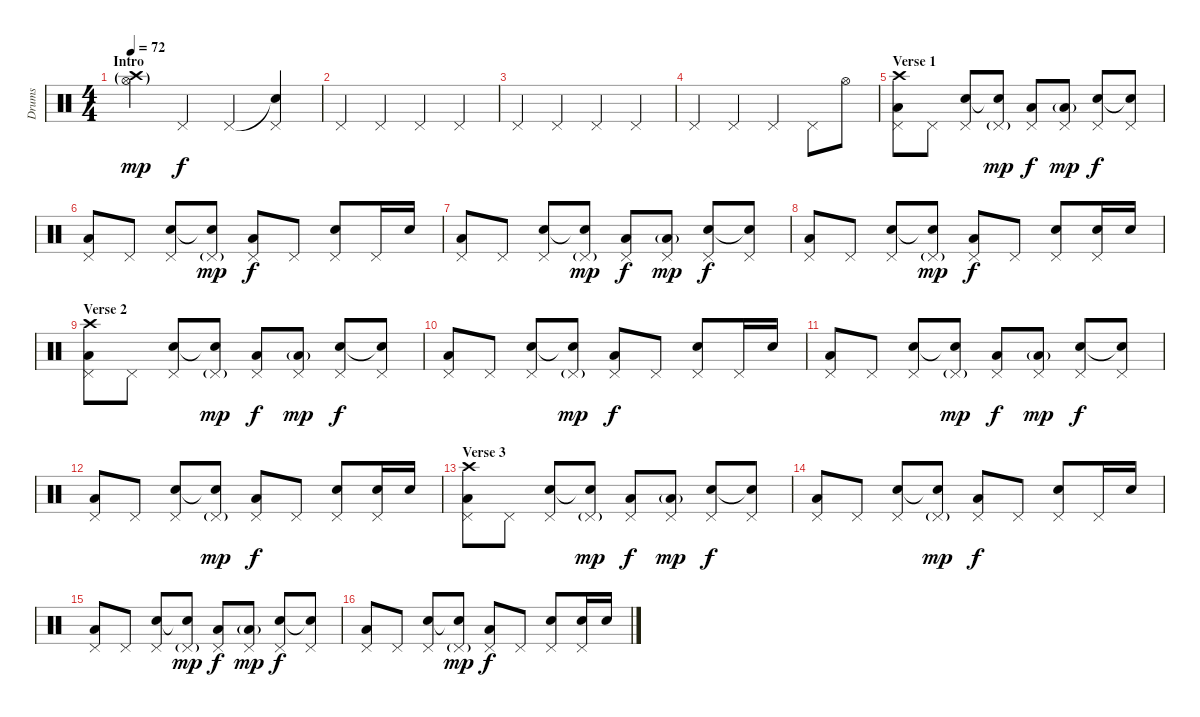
\track ("Drums" "Drums") {instrument percussion}
\staff {score}
\articulation defaults
\ts (4 4)
\section ("" "Intro")
\tempo 72
\clef neutral
\ks c
("Crash high (hit)"{g} "Hi-Hat (open)"{g}).4{dy mp} "Pedal Hi-Hat (hit)".4{dy f} "Pedal Hi-Hat (hit)".4 ("Snare (hit)"{t} "Pedal Hi-Hat (hit)").4 |
"Pedal Hi-Hat (hit)".4 "Pedal Hi-Hat (hit)".4 "Pedal Hi-Hat (hit)".4 "Pedal Hi-Hat (hit)".4 |
"Pedal Hi-Hat (hit)".4 "Pedal Hi-Hat (hit)".4 "Pedal Hi-Hat (hit)".4 "Pedal Hi-Hat (hit)".4 |
"Pedal Hi-Hat (hit)".4 "Pedal Hi-Hat (hit)".4 "Pedal Hi-Hat (hit)".4 "Pedal Hi-Hat (hit)".8 "Hi-Hat (open)".8 |
\section ("" "Verse 1")
("Crash high (hit)" "Pedal Hi-Hat (hit)" "Low Floor Tom (hit)").8 "Pedal Hi-Hat (hit)".8 ("Pedal Hi-Hat (hit)" "Electric Snare (hit)").8 ("Pedal Hi-Hat (hit)"{g} "Electric Snare (hit)"{t}).8{dy mp} ("Pedal Hi-Hat (hit)" "Low Floor Tom (hit)").8{dy f} ("Pedal Hi-Hat (hit)" "Low Floor Tom (hit)"{g}).8{dy mp} ("Pedal Hi-Hat (hit)" "Electric Snare (hit)").8{dy f} ("Pedal Hi-Hat (hit)" "Snare (hit)"{t}).8 |
("Pedal Hi-Hat (hit)" "Low Floor Tom (hit)").8 "Pedal Hi-Hat (hit)".8 ("Pedal Hi-Hat (hit)" "Electric Snare (hit)").8 ("Pedal Hi-Hat (hit)"{g} "Electric Snare (hit)"{t}).8{dy mp} ("Pedal Hi-Hat (hit)" "Low Floor Tom (hit)").8{dy f} "Pedal Hi-Hat (hit)".8 ("Pedal Hi-Hat (hit)" "Electric Snare (hit)").8 "Pedal Hi-Hat (hit)".16 "Electric Snare (hit)".16 |
("Pedal Hi-Hat (hit)" "Low Floor Tom (hit)").8 "Pedal Hi-Hat (hit)".8 ("Pedal Hi-Hat (hit)" "Electric Snare (hit)").8 ("Pedal Hi-Hat (hit)"{g} "Electric Snare (hit)"{t}).8{dy mp} ("Pedal Hi-Hat (hit)" "Low Floor Tom (hit)").8{dy f} ("Pedal Hi-Hat (hit)" "Low Floor Tom (hit)"{g}).8{dy mp} ("Pedal Hi-Hat (hit)" "Electric Snare (hit)").8{dy f} ("Pedal Hi-Hat (hit)" "Snare (hit)"{t}).8 |
("Pedal Hi-Hat (hit)" "Low Floor Tom (hit)").8 "Pedal Hi-Hat (hit)".8 ("Pedal Hi-Hat (hit)" "Electric Snare (hit)").8 ("Pedal Hi-Hat (hit)"{g} "Electric Snare (hit)"{t}).8{dy mp} ("Pedal Hi-Hat (hit)" "Low Floor Tom (hit)").8{dy f} "Pedal Hi-Hat (hit)".8 ("Pedal Hi-Hat (hit)" "Electric Snare (hit)").8 ("Pedal Hi-Hat (hit)" "Electric Snare (hit)").16 "Electric Snare (hit)".16 |
\section ("" "Verse 2")
("Crash high (hit)" "Pedal Hi-Hat (hit)" "Low Floor Tom (hit)").8 "Pedal Hi-Hat (hit)".8 ("Pedal Hi-Hat (hit)" "Electric Snare (hit)").8 ("Pedal Hi-Hat (hit)"{g} "Electric Snare (hit)"{t}).8{dy mp} ("Pedal Hi-Hat (hit)" "Low Floor Tom (hit)").8{dy f} ("Pedal Hi-Hat (hit)" "Low Floor Tom (hit)"{g}).8{dy mp} ("Pedal Hi-Hat (hit)" "Electric Snare (hit)").8{dy f} ("Pedal Hi-Hat (hit)" "Snare (hit)"{t}).8 |
("Pedal Hi-Hat (hit)" "Low Floor Tom (hit)").8 "Pedal Hi-Hat (hit)".8 ("Pedal Hi-Hat (hit)" "Electric Snare (hit)").8 ("Pedal Hi-Hat (hit)"{g} "Electric Snare (hit)"{t}).8{dy mp} ("Pedal Hi-Hat (hit)" "Low Floor Tom (hit)").8{dy f} "Pedal Hi-Hat (hit)".8 ("Pedal Hi-Hat (hit)" "Electric Snare (hit)").8 "Pedal Hi-Hat (hit)".16 "Electric Snare (hit)".16 |
("Pedal Hi-Hat (hit)" "Low Floor Tom (hit)").8 "Pedal Hi-Hat (hit)".8 ("Pedal Hi-Hat (hit)" "Electric Snare (hit)").8 ("Pedal Hi-Hat (hit)"{g} "Electric Snare (hit)"{t}).8{dy mp} ("Pedal Hi-Hat (hit)" "Low Floor Tom (hit)").8{dy f} ("Pedal Hi-Hat (hit)" "Low Floor Tom (hit)"{g}).8{dy mp} ("Pedal Hi-Hat (hit)" "Electric Snare (hit)").8{dy f} ("Pedal Hi-Hat (hit)" "Snare (hit)"{t}).8 |
("Pedal Hi-Hat (hit)" "Low Floor Tom (hit)").8 "Pedal Hi-Hat (hit)".8 ("Pedal Hi-Hat (hit)" "Electric Snare (hit)").8 ("Pedal Hi-Hat (hit)"{g} "Electric Snare (hit)"{t}).8{dy mp} ("Pedal Hi-Hat (hit)" "Low Floor Tom (hit)").8{dy f} "Pedal Hi-Hat (hit)".8 ("Pedal Hi-Hat (hit)" "Electric Snare (hit)").8 ("Pedal Hi-Hat (hit)" "Electric Snare (hit)").16 "Electric Snare (hit)".16 |
\section ("" "Verse 3")
("Crash high (hit)" "Pedal Hi-Hat (hit)" "Low Floor Tom (hit)").8 "Pedal Hi-Hat (hit)".8 ("Pedal Hi-Hat (hit)" "Electric Snare (hit)").8 ("Pedal Hi-Hat (hit)"{g} "Electric Snare (hit)"{t}).8{dy mp} ("Pedal Hi-Hat (hit)" "Low Floor Tom (hit)").8{dy f} ("Pedal Hi-Hat (hit)" "Low Floor Tom (hit)"{g}).8{dy mp} ("Pedal Hi-Hat (hit)" "Electric Snare (hit)").8{dy f} ("Pedal Hi-Hat (hit)" "Snare (hit)"{t}).8 |
("Pedal Hi-Hat (hit)" "Low Floor Tom (hit)").8 "Pedal Hi-Hat (hit)".8 ("Pedal Hi-Hat (hit)" "Electric Snare (hit)").8 ("Pedal Hi-Hat (hit)"{g} "Electric Snare (hit)"{t}).8{dy mp} ("Pedal Hi-Hat (hit)" "Low Floor Tom (hit)").8{dy f} "Pedal Hi-Hat (hit)".8 ("Pedal Hi-Hat (hit)" "Electric Snare (hit)").8 "Pedal Hi-Hat (hit)".16 "Electric Snare (hit)".16 |
("Pedal Hi-Hat (hit)" "Low Floor Tom (hit)").8 "Pedal Hi-Hat (hit)".8 ("Pedal Hi-Hat (hit)" "Electric Snare (hit)").8 ("Pedal Hi-Hat (hit)"{g} "Electric Snare (hit)"{t}).8{dy mp} ("Pedal Hi-Hat (hit)" "Low Floor Tom (hit)").8{dy f} ("Pedal Hi-Hat (hit)" "Low Floor Tom (hit)"{g}).8{dy mp} ("Pedal Hi-Hat (hit)" "Electric Snare (hit)").8{dy f} ("Pedal Hi-Hat (hit)" "Snare (hit)"{t}).8 |
("Pedal Hi-Hat (hit)" "Low Floor Tom (hit)").8 "Pedal Hi-Hat (hit)".8 ("Pedal Hi-Hat (hit)" "Electric Snare (hit)").8 ("Pedal Hi-Hat (hit)"{g} "Electric Snare (hit)"{t}).8{dy mp} ("Pedal Hi-Hat (hit)" "Low Floor Tom (hit)").8{dy f} "Pedal Hi-Hat (hit)".8 ("Pedal Hi-Hat (hit)" "Electric Snare (hit)").8 ("Pedal Hi-Hat (hit)" "Electric Snare (hit)").16 "Electric Snare (hit)".16
